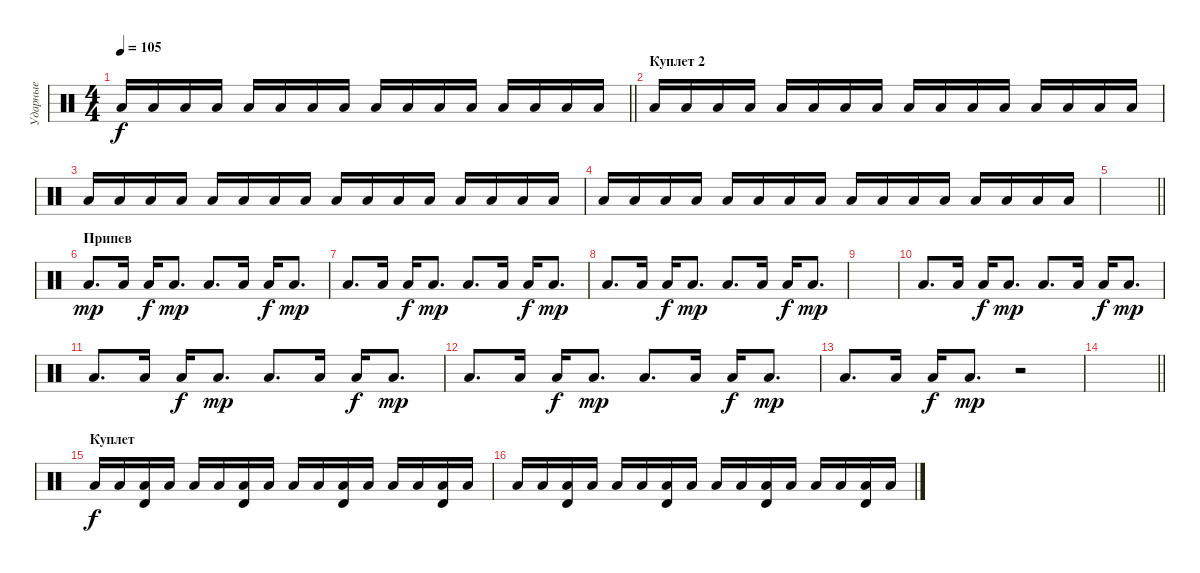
\track ("Ударные" "Ударные") {instrument percussion}
\staff {score}
\articulation defaults
\ts (4 4)
\tempo 105
\clef neutral
\barLineRight lightlight
\ks c "Low Tom (hit)".16{dy f} "Low Tom (hit)".16 "Low Tom (hit)".16 "Low Tom (hit)".16 "Low Tom (hit)".16 "Low Tom (hit)".16 "Low Tom (hit)".16 "Low Tom (hit)".16 "Low Tom (hit)".16 "Low Tom (hit)".16 "Low Tom (hit)".16 "Low Tom (hit)".16 "Low Tom (hit)".16 "Low Tom (hit)".16 "Low Tom (hit)".16 "Low Tom (hit)".16
|
\section ("" "Куплет 2")
"Low Tom (hit)".16 "Low Tom (hit)".16 "Low Tom (hit)".16 "Low Tom (hit)".16 "Low Tom (hit)".16 "Low Tom (hit)".16 "Low Tom (hit)".16 "Low Tom (hit)".16 "Low Tom (hit)".16 "Low Tom (hit)".16 "Low Tom (hit)".16 "Low Tom (hit)".16 "Low Tom (hit)".16 "Low Tom (hit)".16 "Low Tom (hit)".16 "Low Tom (hit)".16 |
"Low Tom (hit)".16 "Low Tom (hit)".16 "Low Tom (hit)".16 "Low Tom (hit)".16 "Low Tom (hit)".16 "Low Tom (hit)".16 "Low Tom (hit)".16 "Low Tom (hit)".16 "Low Tom (hit)".16 "Low Tom (hit)".16 "Low Tom (hit)".16 "Low Tom (hit)".16 "Low Tom (hit)".16 "Low Tom (hit)".16 "Low Tom (hit)".16 "Low Tom (hit)".16 |
"Low Tom (hit)".16 "Low Tom (hit)".16 "Low Tom (hit)".16 "Low Tom (hit)".16 "Low Tom (hit)".16 "Low Tom (hit)".16 "Low Tom (hit)".16 "Low Tom (hit)".16 "Low Tom (hit)".16 "Low Tom (hit)".16 "Low Tom (hit)".16 "Low Tom (hit)".16 "Low Tom (hit)".16 "Low Tom (hit)".16 "Low Tom (hit)".16 "Low Tom (hit)".16 |
\barLineRight lightlight
|
\section ("" "Припев")
"Low Tom (hit)".8{d dy mp} "Low Tom (hit)".16 "Low Tom (hit)".16{dy f} "Low Tom (hit)".8{d dy mp} "Low Tom (hit)".8{d} "Low Tom (hit)".16 "Low Tom (hit)".16{dy f} "Low Tom (hit)".8{d dy mp} |
"Low Tom (hit)".8{d} "Low Tom (hit)".16 "Low Tom (hit)".16{dy f} "Low Tom (hit)".8{d dy mp} "Low Tom (hit)".8{d} "Low Tom (hit)".16 "Low Tom (hit)".16{dy f} "Low Tom (hit)".8{d dy mp} |
"Low Tom (hit)".8{d} "Low Tom (hit)".16 "Low Tom (hit)".16{dy f} "Low Tom (hit)".8{d dy mp} "Low Tom (hit)".8{d} "Low Tom (hit)".16 "Low Tom (hit)".16{dy f} "Low Tom (hit)".8{d dy mp} |
|
"Low Tom (hit)".8{d} "Low Tom (hit)".16 "Low Tom (hit)".16{dy f} "Low Tom (hit)".8{d dy mp} "Low Tom (hit)".8{d} "Low Tom (hit)".16 "Low Tom (hit)".16{dy f} "Low Tom (hit)".8{d dy mp} |
"Low Tom (hit)".8{d} "Low Tom (hit)".16 "Low Tom (hit)".16{dy f} "Low Tom (hit)".8{d dy mp} "Low Tom (hit)".8{d} "Low Tom (hit)".16 "Low Tom (hit)".16{dy f} "Low Tom (hit)".8{d dy mp} |
"Low Tom (hit)".8{d} "Low Tom (hit)".16 "Low Tom (hit)".16{dy f} "Low Tom (hit)".8{d dy mp} "Low Tom (hit)".8{d} "Low Tom (hit)".16 "Low Tom (hit)".16{dy f} "Low Tom (hit)".8{d dy mp} |
"Low Tom (hit)".8{d} "Low Tom (hit)".16 "Low Tom (hit)".16{dy f} "Low Tom (hit)".8{d dy mp} r.2 |
\barLineRight lightlight
|
\section ("" "Куплет")
"Low Tom (hit)".16{dy f} "Low Tom (hit)".16 ("Timbale high (hit)" "Low Tom (hit)").16 "Low Tom (hit)".16 "Low Tom (hit)".16 "Low Tom (hit)".16 ("Timbale high (hit)" "Low Tom (hit)").16 "Low Tom (hit)".16 "Low Tom (hit)".16 "Low Tom (hit)".16 ("Timbale high (hit)" "Low Tom (hit)").16 "Low Tom (hit)".16 "Low Tom (hit)".16 "Low Tom (hit)".16 ("Timbale high (hit)" "Low Tom (hit)").16 "Low Tom (hit)".16 |
"Low Tom (hit)".16 "Low Tom (hit)".16 ("Timbale high (hit)" "Low Tom (hit)").16 "Low Tom (hit)".16 "Low Tom (hit)".16 "Low Tom (hit)".16 ("Timbale high (hit)" "Low Tom (hit)").16 "Low Tom (hit)".16 "Low Tom (hit)".16 "Low Tom (hit)".16 ("Timbale high (hit)" "Low Tom (hit)").16 "Low Tom (hit)".16 "Low Tom (hit)".16 "Low Tom (hit)".16 ("Timbale high (hit)" "Low Tom (hit)").16 "Low Tom (hit)".16
